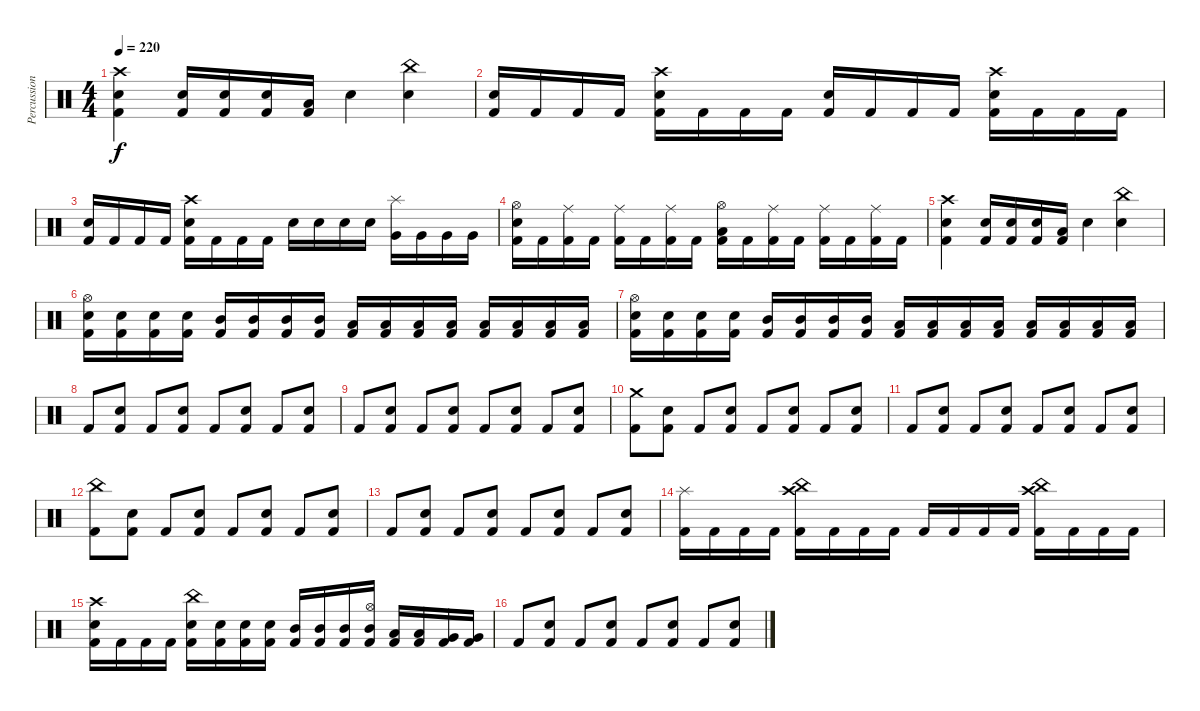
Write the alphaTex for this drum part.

\track ("Percussion" "Percussion") {instrument percussion}
\staff {score}
\articulation defaults
\ts (4 4)
\tempo 220
\clef neutral
\ks c
("Crash high (hit)" "Electric Snare (hit)" "Kick (hit) 2").4{dy f} ("Electric Snare (hit)" "Kick (hit) 2").16 ("Electric Snare (hit)" "Kick (hit) 2").16 ("Electric Snare (hit)" "Kick (hit) 2").16 ("Low Tom (hit)" "Kick (hit) 2").16 "Electric Snare (hit)".4 ("China (hit)" "Electric Snare (hit)").4 |
("Electric Snare (hit)" "Kick (hit) 2").16 "Kick (hit) 2".16 "Kick (hit) 2".16 "Kick (hit) 2".16 ("Crash high (hit)" "Electric Snare (hit)" "Kick (hit) 2").16 "Kick (hit) 2".16 "Kick (hit) 2".16 "Kick (hit) 2".16 ("Electric Snare (hit)" "Kick (hit) 2").16 "Kick (hit) 2".16 "Kick (hit) 2".16 "Kick (hit) 2".16 ("Crash high (hit)" "Electric Snare (hit)" "Kick (hit) 2").16 "Kick (hit) 2".16 "Kick (hit) 2".16 "Kick (hit) 2".16 |
("Electric Snare (hit)" "Kick (hit) 2").16 "Kick (hit) 2".16 "Kick (hit) 2".16 "Kick (hit) 2".16 ("Crash high (hit)" "Electric Snare (hit)" "Kick (hit) 2").16 "Kick (hit) 2".16 "Kick (hit) 2".16 "Kick (hit) 2".16 "Electric Snare (hit)".16 "Electric Snare (hit)".16 "Electric Snare (hit)".16 "Electric Snare (hit)".16 ("Splash (hit)" "Very Low Tom (hit)").16 "Very Low Tom (hit)".16 "Very Low Tom (hit)".16 "Very Low Tom (hit)".16 |
("Hi-Hat (open)" "Electric Snare (hit)" "Kick (hit) 2").16 "Kick (hit) 2".16 ("Ride (middle)" "Kick (hit) 2").16 "Kick (hit) 2".16 ("Ride (middle)" "Kick (hit) 2").16 "Kick (hit) 2".16 ("Ride (middle)" "Kick (hit) 2").16 "Kick (hit) 2".16 ("Hi-Hat (open)" "Low Tom (hit)" "Kick (hit) 2").16 "Kick (hit) 2".16 ("Ride (middle)" "Kick (hit) 2").16 "Kick (hit) 2".16 ("Ride (middle)" "Kick (hit) 2").16 "Kick (hit) 2".16 ("Ride (middle)" "Kick (hit) 2").16 "Kick (hit) 2".16 |
("Crash high (hit)" "Electric Snare (hit)" "Kick (hit) 2").4 ("Electric Snare (hit)" "Kick (hit) 2").16 ("Electric Snare (hit)" "Kick (hit) 2").16 ("Electric Snare (hit)" "Kick (hit) 2").16 ("Low Tom (hit)" "Kick (hit) 2").16 "Electric Snare (hit)".4 ("China (hit)" "Electric Snare (hit)").4 |
("Hi-Hat (open)" "Electric Snare (hit)" "Kick (hit) 2").16 ("Electric Snare (hit)" "Kick (hit) 2").16 ("Electric Snare (hit)" "Kick (hit) 2").16 ("Electric Snare (hit)" "Kick (hit) 2").16 ("Mid Tom (hit)" "Kick (hit) 2").16 ("Mid Tom (hit)" "Kick (hit) 2").16 ("Mid Tom (hit)" "Kick (hit) 2").16 ("Mid Tom (hit)" "Kick (hit) 2").16 ("Low Tom (hit)" "Kick (hit) 2").16 ("Low Tom (hit)" "Kick (hit) 2").16 ("Low Tom (hit)" "Kick (hit) 2").16 ("Low Tom (hit)" "Kick (hit) 2").16 ("Low Floor Tom (hit)" "Kick (hit) 2").16 ("Low Floor Tom (hit)" "Kick (hit) 2").16 ("Low Floor Tom (hit)" "Kick (hit) 2").16 ("Low Floor Tom (hit)" "Kick (hit) 2").16 |
("Hi-Hat (open)" "Electric Snare (hit)" "Kick (hit) 2").16 ("Electric Snare (hit)" "Kick (hit) 2").16 ("Electric Snare (hit)" "Kick (hit) 2").16 ("Electric Snare (hit)" "Kick (hit) 2").16 ("Mid Tom (hit)" "Kick (hit) 2").16 ("Mid Tom (hit)" "Kick (hit) 2").16 ("Mid Tom (hit)" "Kick (hit) 2").16 ("Mid Tom (hit)" "Kick (hit) 2").16 ("Low Tom (hit)" "Kick (hit) 2").16 ("Low Tom (hit)" "Kick (hit) 2").16 ("Low Tom (hit)" "Kick (hit) 2").16 ("Low Tom (hit)" "Kick (hit) 2").16 ("Low Floor Tom (hit)" "Kick (hit) 2").16 ("Low Floor Tom (hit)" "Kick (hit) 2").16 ("Low Floor Tom (hit)" "Kick (hit) 2").16 ("Low Floor Tom (hit)" "Kick (hit) 2").16 |
"Kick (hit) 2".8 ("Electric Snare (hit)" "Kick (hit) 2").8 "Kick (hit) 2".8 ("Electric Snare (hit)" "Kick (hit) 2").8 "Kick (hit) 2".8 ("Electric Snare (hit)" "Kick (hit) 2").8 "Kick (hit) 2".8 ("Electric Snare (hit)" "Kick (hit) 2").8 |
"Kick (hit) 2".8 ("Electric Snare (hit)" "Kick (hit) 2").8 "Kick (hit) 2".8 ("Electric Snare (hit)" "Kick (hit) 2").8 "Kick (hit) 2".8 ("Electric Snare (hit)" "Kick (hit) 2").8 "Kick (hit) 2".8 ("Electric Snare (hit)" "Kick (hit) 2").8 |
("Crash medium (hit)" "Kick (hit) 2").8 ("Electric Snare (hit)" "Kick (hit) 2").8 "Kick (hit) 2".8 ("Electric Snare (hit)" "Kick (hit) 2").8 "Kick (hit) 2".8 ("Electric Snare (hit)" "Kick (hit) 2").8 "Kick (hit) 2".8 ("Electric Snare (hit)" "Kick (hit) 2").8 |
"Kick (hit) 2".8 ("Electric Snare (hit)" "Kick (hit) 2").8 "Kick (hit) 2".8 ("Electric Snare (hit)" "Kick (hit) 2").8 "Kick (hit) 2".8 ("Electric Snare (hit)" "Kick (hit) 2").8 "Kick (hit) 2".8 ("Electric Snare (hit)" "Kick (hit) 2").8 |
("China (hit)" "Kick (hit) 2").8 ("Electric Snare (hit)" "Kick (hit) 2").8 "Kick (hit) 2".8 ("Electric Snare (hit)" "Kick (hit) 2").8 "Kick (hit) 2".8 ("Electric Snare (hit)" "Kick (hit) 2").8 "Kick (hit) 2".8 ("Electric Snare (hit)" "Kick (hit) 2").8 |
"Kick (hit) 2".8 ("Electric Snare (hit)" "Kick (hit) 2").8 "Kick (hit) 2".8 ("Electric Snare (hit)" "Kick (hit) 2").8 "Kick (hit) 2".8 ("Electric Snare (hit)" "Kick (hit) 2").8 "Kick (hit) 2".8 ("Electric Snare (hit)" "Kick (hit) 2").8 |
("Splash (hit)" "Kick (hit) 2").16 "Kick (hit) 2".16 "Kick (hit) 2".16 "Kick (hit) 2".16 ("Crash high (hit)" "China (hit)" "Kick (hit) 2").16 "Kick (hit) 2".16 "Kick (hit) 2".16 "Kick (hit) 2".16 "Kick (hit) 2".16 "Kick (hit) 2".16 "Kick (hit) 2".16 "Kick (hit) 2".16 ("Crash high (hit)" "China (hit)" "Kick (hit) 2").16 "Kick (hit) 2".16 "Kick (hit) 2".16 "Kick (hit) 2".16 |
("Crash high (hit)" "Electric Snare (hit)" "Kick (hit) 2").16 "Kick (hit) 2".16 "Kick (hit) 2".16 "Kick (hit) 2".16 ("China (hit)" "Electric Snare (hit)" "Kick (hit) 2").16 ("Electric Snare (hit)" "Kick (hit) 2").16 ("Electric Snare (hit)" "Kick (hit) 2").16 ("Electric Snare (hit)" "Kick (hit) 2").16 ("Mid Tom (hit)" "Kick (hit) 2").16 ("Mid Tom (hit)" "Kick (hit) 2").16 ("Mid Tom (hit)" "Kick (hit) 2").16 ("Hi-Hat (open)" "Mid Tom (hit)" "Kick (hit) 2").16 ("Low Tom (hit)" "Kick (hit) 2").16 ("Low Tom (hit)" "Kick (hit) 2").16 ("Very Low Tom (hit)" "Kick (hit) 2").16 ("Very Low Tom (hit)" "Kick (hit) 2").16 |
"Kick (hit) 2".8 ("Electric Snare (hit)" "Kick (hit) 2").8 "Kick (hit) 2".8 ("Electric Snare (hit)" "Kick (hit) 2").8 "Kick (hit) 2".8 ("Electric Snare (hit)" "Kick (hit) 2").8 "Kick (hit) 2".8 ("Electric Snare (hit)" "Kick (hit) 2").8
